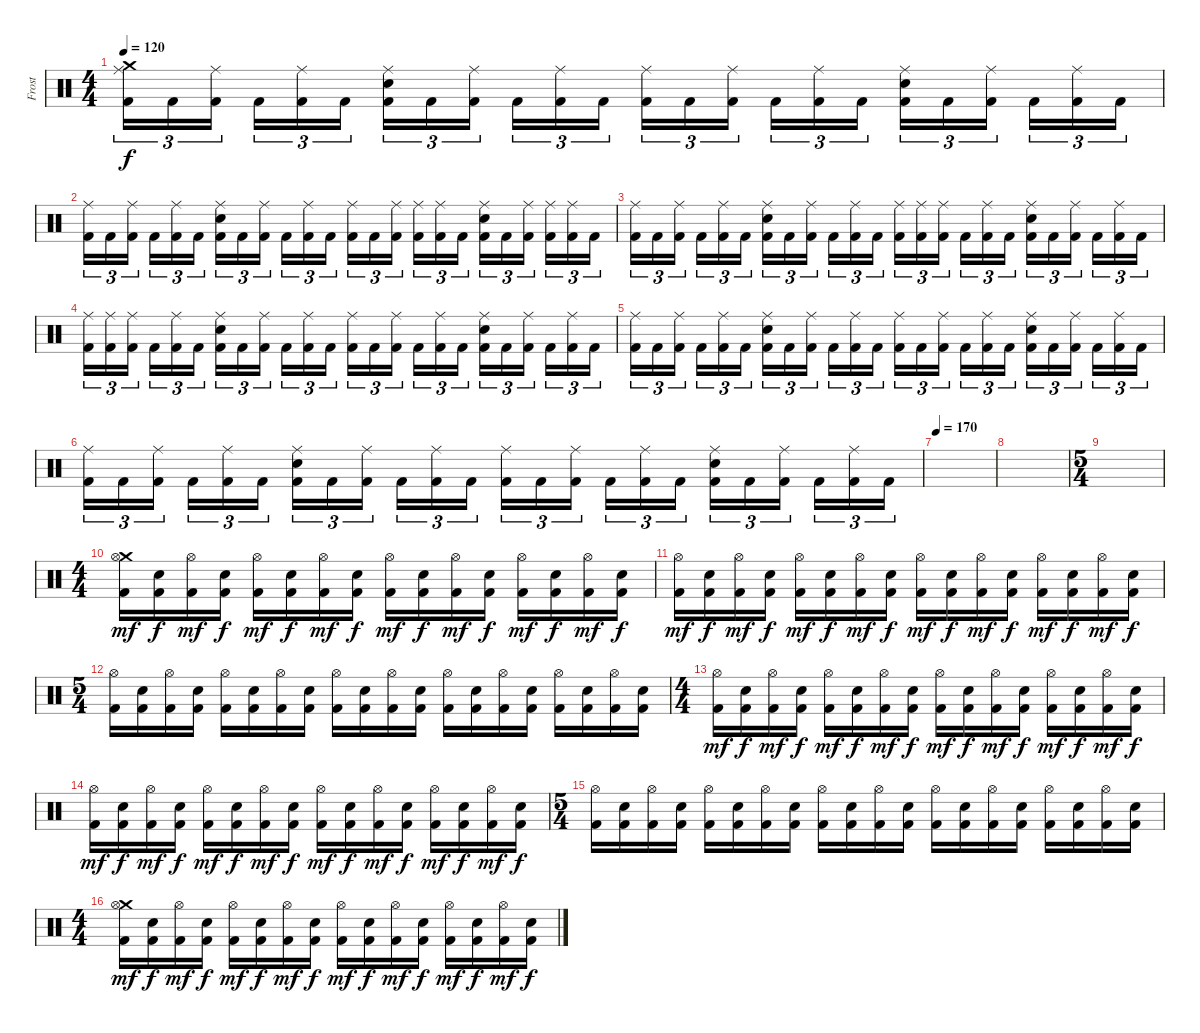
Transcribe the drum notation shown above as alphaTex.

\track ("Frost" "Frost") {instrument percussion}
\staff {score}
\articulation defaults
\ts (4 4)
\tempo 120
\clef neutral
\ks c
("Kick (hit) 2" "Crash medium (hit)" "Ride (middle)").16{tu (3 2) dy f} "Kick (hit) 2".16{tu (3 2)} ("Kick (hit) 2" "Ride (middle)").16{tu (3 2)} "Kick (hit) 2".16{tu (3 2)} ("Kick (hit) 2" "Ride (middle)").16{tu (3 2)} "Kick (hit) 2".16{tu (3 2)} ("Kick (hit) 2" "Electric Snare (hit)" "Ride (middle)").16{tu (3 2)} "Kick (hit) 2".16{tu (3 2)} ("Kick (hit) 2" "Ride (middle)").16{tu (3 2)} "Kick (hit) 2".16{tu (3 2)} ("Kick (hit) 2" "Ride (middle)").16{tu (3 2)} "Kick (hit) 2".16{tu (3 2)} ("Kick (hit) 2" "Ride (middle)").16{tu (3 2)} "Kick (hit) 2".16{tu (3 2)} ("Kick (hit) 2" "Ride (middle)").16{tu (3 2)} "Kick (hit) 2".16{tu (3 2)} ("Kick (hit) 2" "Ride (middle)").16{tu (3 2)} "Kick (hit) 2".16{tu (3 2)} ("Kick (hit) 2" "Electric Snare (hit)" "Ride (middle)").16{tu (3 2)} "Kick (hit) 2".16{tu (3 2)} ("Kick (hit) 2" "Ride (middle)").16{tu (3 2)} "Kick (hit) 2".16{tu (3 2)} ("Kick (hit) 2" "Ride (middle)").16{tu (3 2)} "Kick (hit) 2".16{tu (3 2)} |
("Kick (hit) 2" "Ride (middle)").16{tu (3 2)} "Kick (hit) 2".16{tu (3 2)} ("Kick (hit) 2" "Ride (middle)").16{tu (3 2)} "Kick (hit) 2".16{tu (3 2)} ("Kick (hit) 2" "Ride (middle)").16{tu (3 2)} "Kick (hit) 2".16{tu (3 2)} ("Kick (hit) 2" "Electric Snare (hit)" "Ride (middle)").16{tu (3 2)} "Kick (hit) 2".16{tu (3 2)} ("Kick (hit) 2" "Ride (middle)").16{tu (3 2)} "Kick (hit) 2".16{tu (3 2)} ("Kick (hit) 2" "Ride (middle)").16{tu (3 2)} "Kick (hit) 2".16{tu (3 2)} ("Kick (hit) 2" "Ride (middle)").16{tu (3 2)} "Kick (hit) 2".16{tu (3 2)} ("Kick (hit) 2" "Ride (middle)").16{tu (3 2)} ("Kick (hit) 2" "Ride (middle)").16{tu (3 2)} ("Kick (hit) 2" "Ride (middle)").16{tu (3 2)} "Kick (hit) 2".16{tu (3 2)} ("Kick (hit) 2" "Electric Snare (hit)" "Ride (middle)").16{tu (3 2)} "Kick (hit) 2".16{tu (3 2)} ("Kick (hit) 2" "Ride (middle)").16{tu (3 2)} ("Kick (hit) 2" "Ride (middle)").16{tu (3 2)} ("Kick (hit) 2" "Ride (middle)").16{tu (3 2)} "Kick (hit) 2".16{tu (3 2)} |
("Kick (hit) 2" "Ride (middle)").16{tu (3 2)} "Kick (hit) 2".16{tu (3 2)} ("Kick (hit) 2" "Ride (middle)").16{tu (3 2)} "Kick (hit) 2".16{tu (3 2)} ("Kick (hit) 2" "Ride (middle)").16{tu (3 2)} "Kick (hit) 2".16{tu (3 2)} ("Kick (hit) 2" "Electric Snare (hit)" "Ride (middle)").16{tu (3 2)} "Kick (hit) 2".16{tu (3 2)} ("Kick (hit) 2" "Ride (middle)").16{tu (3 2)} "Kick (hit) 2".16{tu (3 2)} ("Kick (hit) 2" "Ride (middle)").16{tu (3 2)} "Kick (hit) 2".16{tu (3 2)} ("Kick (hit) 2" "Ride (middle)").16{tu (3 2)} ("Kick (hit) 2" "Ride (middle)").16{tu (3 2)} ("Kick (hit) 2" "Ride (middle)").16{tu (3 2)} "Kick (hit) 2".16{tu (3 2)} ("Kick (hit) 2" "Ride (middle)").16{tu (3 2)} "Kick (hit) 2".16{tu (3 2)} ("Kick (hit) 2" "Electric Snare (hit)" "Ride (middle)").16{tu (3 2)} "Kick (hit) 2".16{tu (3 2)} ("Kick (hit) 2" "Ride (middle)").16{tu (3 2)} "Kick (hit) 2".16{tu (3 2)} ("Kick (hit) 2" "Ride (middle)").16{tu (3 2)} "Kick (hit) 2".16{tu (3 2)} |
("Kick (hit) 2" "Ride (middle)").16{tu (3 2)} ("Kick (hit) 2" "Ride (middle)").16{tu (3 2)} ("Kick (hit) 2" "Ride (middle)").16{tu (3 2)} "Kick (hit) 2".16{tu (3 2)} ("Kick (hit) 2" "Ride (middle)").16{tu (3 2)} "Kick (hit) 2".16{tu (3 2)} ("Kick (hit) 2" "Electric Snare (hit)" "Ride (middle)").16{tu (3 2)} "Kick (hit) 2".16{tu (3 2)} ("Kick (hit) 2" "Ride (middle)").16{tu (3 2)} "Kick (hit) 2".16{tu (3 2)} ("Kick (hit) 2" "Ride (middle)").16{tu (3 2)} "Kick (hit) 2".16{tu (3 2)} ("Kick (hit) 2" "Ride (middle)").16{tu (3 2)} "Kick (hit) 2".16{tu (3 2)} ("Kick (hit) 2" "Ride (middle)").16{tu (3 2)} "Kick (hit) 2".16{tu (3 2)} ("Kick (hit) 2" "Ride (middle)").16{tu (3 2)} "Kick (hit) 2".16{tu (3 2)} ("Kick (hit) 2" "Electric Snare (hit)" "Ride (middle)").16{tu (3 2)} "Kick (hit) 2".16{tu (3 2)} ("Kick (hit) 2" "Ride (middle)").16{tu (3 2)} "Kick (hit) 2".16{tu (3 2)} ("Kick (hit) 2" "Ride (middle)").16{tu (3 2)} "Kick (hit) 2".16{tu (3 2)} |
("Kick (hit) 2" "Ride (middle)").16{tu (3 2)} "Kick (hit) 2".16{tu (3 2)} ("Kick (hit) 2" "Ride (middle)").16{tu (3 2)} "Kick (hit) 2".16{tu (3 2)} ("Kick (hit) 2" "Ride (middle)").16{tu (3 2)} "Kick (hit) 2".16{tu (3 2)} ("Kick (hit) 2" "Electric Snare (hit)" "Ride (middle)").16{tu (3 2)} "Kick (hit) 2".16{tu (3 2)} ("Kick (hit) 2" "Ride (middle)").16{tu (3 2)} "Kick (hit) 2".16{tu (3 2)} ("Kick (hit) 2" "Ride (middle)").16{tu (3 2)} "Kick (hit) 2".16{tu (3 2)} ("Kick (hit) 2" "Ride (middle)").16{tu (3 2)} "Kick (hit) 2".16{tu (3 2)} ("Kick (hit) 2" "Ride (middle)").16{tu (3 2)} "Kick (hit) 2".16{tu (3 2)} ("Kick (hit) 2" "Ride (middle)").16{tu (3 2)} "Kick (hit) 2".16{tu (3 2)} ("Kick (hit) 2" "Electric Snare (hit)" "Ride (middle)").16{tu (3 2)} "Kick (hit) 2".16{tu (3 2)} ("Kick (hit) 2" "Ride (middle)").16{tu (3 2)} "Kick (hit) 2".16{tu (3 2)} ("Kick (hit) 2" "Ride (middle)").16{tu (3 2)} "Kick (hit) 2".16{tu (3 2)} |
("Kick (hit) 2" "Ride (middle)").16{tu (3 2)} "Kick (hit) 2".16{tu (3 2)} ("Kick (hit) 2" "Ride (middle)").16{tu (3 2)} "Kick (hit) 2".16{tu (3 2)} ("Kick (hit) 2" "Ride (middle)").16{tu (3 2)} "Kick (hit) 2".16{tu (3 2)} ("Kick (hit) 2" "Electric Snare (hit)" "Ride (middle)").16{tu (3 2)} "Kick (hit) 2".16{tu (3 2)} ("Kick (hit) 2" "Ride (middle)").16{tu (3 2)} "Kick (hit) 2".16{tu (3 2)} ("Kick (hit) 2" "Ride (middle)").16{tu (3 2)} "Kick (hit) 2".16{tu (3 2)} ("Kick (hit) 2" "Ride (middle)").16{tu (3 2)} "Kick (hit) 2".16{tu (3 2)} ("Kick (hit) 2" "Ride (middle)").16{tu (3 2)} "Kick (hit) 2".16{tu (3 2)} ("Kick (hit) 2" "Ride (middle)").16{tu (3 2)} "Kick (hit) 2".16{tu (3 2)} ("Kick (hit) 2" "Electric Snare (hit)" "Ride (middle)").16{tu (3 2)} "Kick (hit) 2".16{tu (3 2)} ("Kick (hit) 2" "Ride (middle)").16{tu (3 2)} "Kick (hit) 2".16{tu (3 2)} ("Kick (hit) 2" "Ride (middle)").16{tu (3 2)} "Kick (hit) 2".16{tu (3 2)} |
\tempo 170
|
|
\ts (5 4)
|
\ts (4 4)
("Kick (hit) 2" "Crash medium (hit)" "Hi-Hat (open)").16{dy mf} ("Kick (hit) 2" "Snare (hit) 2").16{dy f} ("Kick (hit) 2" "Hi-Hat (open)").16{dy mf} ("Kick (hit) 2" "Snare (hit) 2").16{dy f} ("Kick (hit) 2" "Hi-Hat (open)").16{dy mf} ("Kick (hit) 2" "Snare (hit) 2").16{dy f} ("Kick (hit) 2" "Hi-Hat (open)").16{dy mf} ("Kick (hit) 2" "Snare (hit) 2").16{dy f} ("Kick (hit) 2" "Hi-Hat (open)").16{dy mf} ("Kick (hit) 2" "Snare (hit) 2").16{dy f} ("Kick (hit) 2" "Hi-Hat (open)").16{dy mf} ("Kick (hit) 2" "Snare (hit) 2").16{dy f} ("Kick (hit) 2" "Hi-Hat (open)").16{dy mf} ("Kick (hit) 2" "Snare (hit) 2").16{dy f} ("Kick (hit) 2" "Hi-Hat (open)").16{dy mf} ("Kick (hit) 2" "Snare (hit) 2").16{dy f} |
("Kick (hit) 2" "Hi-Hat (open)").16{dy mf} ("Kick (hit) 2" "Snare (hit) 2").16{dy f} ("Kick (hit) 2" "Hi-Hat (open)").16{dy mf} ("Kick (hit) 2" "Snare (hit) 2").16{dy f} ("Kick (hit) 2" "Hi-Hat (open)").16{dy mf} ("Kick (hit) 2" "Snare (hit) 2").16{dy f} ("Kick (hit) 2" "Hi-Hat (open)").16{dy mf} ("Kick (hit) 2" "Snare (hit) 2").16{dy f} ("Kick (hit) 2" "Hi-Hat (open)").16{dy mf} ("Kick (hit) 2" "Snare (hit) 2").16{dy f} ("Kick (hit) 2" "Hi-Hat (open)").16{dy mf} ("Kick (hit) 2" "Snare (hit) 2").16{dy f} ("Kick (hit) 2" "Hi-Hat (open)").16{dy mf} ("Kick (hit) 2" "Snare (hit) 2").16{dy f} ("Kick (hit) 2" "Hi-Hat (open)").16{dy mf} ("Kick (hit) 2" "Snare (hit) 2").16{dy f} |
\ts (5 4)
("Kick (hit) 2" "Hi-Hat (open)").16 ("Kick (hit) 2" "Snare (hit) 2").16 ("Kick (hit) 2" "Hi-Hat (open)").16 ("Kick (hit) 2" "Snare (hit) 2").16 ("Kick (hit) 2" "Hi-Hat (open)").16 ("Kick (hit) 2" "Snare (hit) 2").16 ("Kick (hit) 2" "Hi-Hat (open)").16 ("Kick (hit) 2" "Snare (hit) 2").16 ("Kick (hit) 2" "Hi-Hat (open)").16 ("Kick (hit) 2" "Snare (hit) 2").16 ("Kick (hit) 2" "Hi-Hat (open)").16 ("Kick (hit) 2" "Snare (hit) 2").16 ("Kick (hit) 2" "Hi-Hat (open)").16 ("Kick (hit) 2" "Snare (hit) 2").16 ("Kick (hit) 2" "Hi-Hat (open)").16 ("Kick (hit) 2" "Snare (hit) 2").16 ("Kick (hit) 2" "Hi-Hat (open)").16 ("Kick (hit) 2" "Snare (hit) 2").16 ("Kick (hit) 2" "Hi-Hat (open)").16 ("Kick (hit) 2" "Snare (hit) 2").16 |
\ts (4 4)
("Kick (hit) 2" "Hi-Hat (open)").16{dy mf} ("Kick (hit) 2" "Snare (hit) 2").16{dy f} ("Kick (hit) 2" "Hi-Hat (open)").16{dy mf} ("Kick (hit) 2" "Snare (hit) 2").16{dy f} ("Kick (hit) 2" "Hi-Hat (open)").16{dy mf} ("Kick (hit) 2" "Snare (hit) 2").16{dy f} ("Kick (hit) 2" "Hi-Hat (open)").16{dy mf} ("Kick (hit) 2" "Snare (hit) 2").16{dy f} ("Kick (hit) 2" "Hi-Hat (open)").16{dy mf} ("Kick (hit) 2" "Snare (hit) 2").16{dy f} ("Kick (hit) 2" "Hi-Hat (open)").16{dy mf} ("Kick (hit) 2" "Snare (hit) 2").16{dy f} ("Kick (hit) 2" "Hi-Hat (open)").16{dy mf} ("Kick (hit) 2" "Snare (hit) 2").16{dy f} ("Kick (hit) 2" "Hi-Hat (open)").16{dy mf} ("Kick (hit) 2" "Snare (hit) 2").16{dy f} |
("Kick (hit) 2" "Hi-Hat (open)").16{dy mf} ("Kick (hit) 2" "Snare (hit) 2").16{dy f} ("Kick (hit) 2" "Hi-Hat (open)").16{dy mf} ("Kick (hit) 2" "Snare (hit) 2").16{dy f} ("Kick (hit) 2" "Hi-Hat (open)").16{dy mf} ("Kick (hit) 2" "Snare (hit) 2").16{dy f} ("Kick (hit) 2" "Hi-Hat (open)").16{dy mf} ("Kick (hit) 2" "Snare (hit) 2").16{dy f} ("Kick (hit) 2" "Hi-Hat (open)").16{dy mf} ("Kick (hit) 2" "Snare (hit) 2").16{dy f} ("Kick (hit) 2" "Hi-Hat (open)").16{dy mf} ("Kick (hit) 2" "Snare (hit) 2").16{dy f} ("Kick (hit) 2" "Hi-Hat (open)").16{dy mf} ("Kick (hit) 2" "Snare (hit) 2").16{dy f} ("Kick (hit) 2" "Hi-Hat (open)").16{dy mf} ("Kick (hit) 2" "Snare (hit) 2").16{dy f} |
\ts (5 4)
("Kick (hit) 2" "Hi-Hat (open)").16 ("Kick (hit) 2" "Snare (hit) 2").16 ("Kick (hit) 2" "Hi-Hat (open)").16 ("Kick (hit) 2" "Snare (hit) 2").16 ("Kick (hit) 2" "Hi-Hat (open)").16 ("Kick (hit) 2" "Snare (hit) 2").16 ("Kick (hit) 2" "Hi-Hat (open)").16 ("Kick (hit) 2" "Snare (hit) 2").16 ("Kick (hit) 2" "Hi-Hat (open)").16 ("Kick (hit) 2" "Snare (hit) 2").16 ("Kick (hit) 2" "Hi-Hat (open)").16 ("Kick (hit) 2" "Snare (hit) 2").16 ("Kick (hit) 2" "Hi-Hat (open)").16 ("Kick (hit) 2" "Snare (hit) 2").16 ("Kick (hit) 2" "Hi-Hat (open)").16 ("Kick (hit) 2" "Snare (hit) 2").16 ("Kick (hit) 2" "Hi-Hat (open)").16 ("Kick (hit) 2" "Snare (hit) 2").16 ("Kick (hit) 2" "Hi-Hat (open)").16 ("Kick (hit) 2" "Snare (hit) 2").16 |
\ts (4 4)
("Kick (hit) 2" "Crash medium (hit)" "Hi-Hat (open)").16{dy mf} ("Kick (hit) 2" "Snare (hit) 2").16{dy f} ("Kick (hit) 2" "Hi-Hat (open)").16{dy mf} ("Kick (hit) 2" "Snare (hit) 2").16{dy f} ("Kick (hit) 2" "Hi-Hat (open)").16{dy mf} ("Kick (hit) 2" "Snare (hit) 2").16{dy f} ("Kick (hit) 2" "Hi-Hat (open)").16{dy mf} ("Kick (hit) 2" "Snare (hit) 2").16{dy f} ("Kick (hit) 2" "Hi-Hat (open)").16{dy mf} ("Kick (hit) 2" "Snare (hit) 2").16{dy f} ("Kick (hit) 2" "Hi-Hat (open)").16{dy mf} ("Kick (hit) 2" "Snare (hit) 2").16{dy f} ("Kick (hit) 2" "Hi-Hat (open)").16{dy mf} ("Kick (hit) 2" "Snare (hit) 2").16{dy f} ("Kick (hit) 2" "Hi-Hat (open)").16{dy mf} ("Kick (hit) 2" "Snare (hit) 2").16{dy f}
